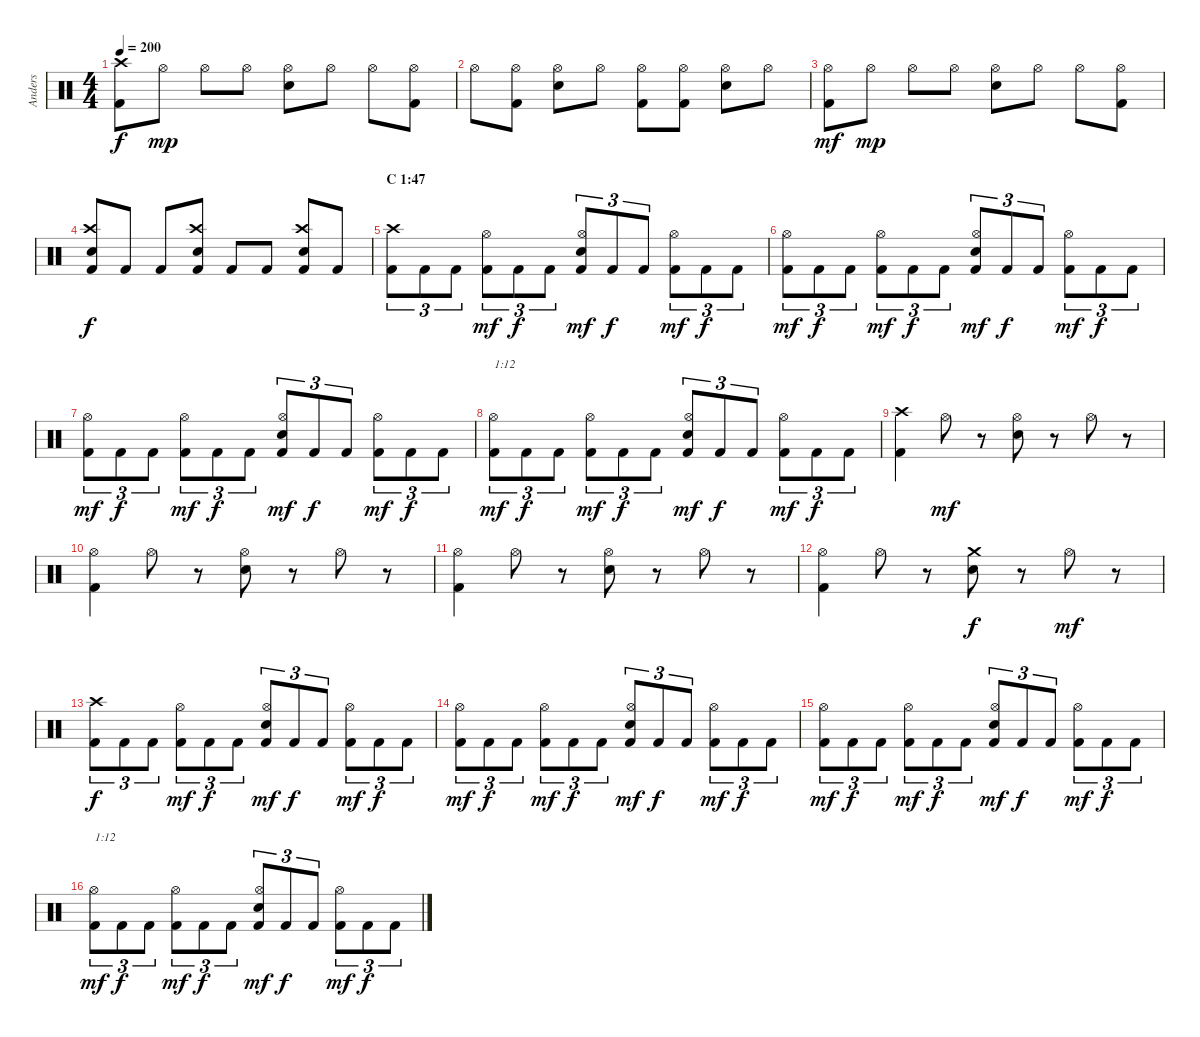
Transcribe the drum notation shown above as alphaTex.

\track ("Anders" "Anders") {instrument percussion}
\staff {score}
\articulation defaults
\ts (4 4)
\tempo 200
\clef neutral
\ks c
("Kick (hit) 2" "Crash high (hit)").8{dy f} "Hi-Hat (open)".8{dy mp} "Hi-Hat (open)".8 "Hi-Hat (open)".8 ("Electric Snare (hit)" "Hi-Hat (open)").8 "Hi-Hat (open)".8 "Hi-Hat (open)".8 ("Kick (hit) 2" "Hi-Hat (open)").8 |
"Hi-Hat (open)".8 ("Kick (hit) 2" "Hi-Hat (open)").8 ("Electric Snare (hit)" "Hi-Hat (open)").8 "Hi-Hat (open)".8 ("Kick (hit) 2" "Hi-Hat (open)").8 ("Kick (hit) 2" "Hi-Hat (open)").8 ("Electric Snare (hit)" "Hi-Hat (open)").8 "Hi-Hat (open)".8 |
("Kick (hit) 2" "Hi-Hat (open)").8{dy mf} "Hi-Hat (open)".8{dy mp} "Hi-Hat (open)".8 "Hi-Hat (open)".8 ("Electric Snare (hit)" "Hi-Hat (open)").8 "Hi-Hat (open)".8 "Hi-Hat (open)".8 ("Kick (hit) 2" "Hi-Hat (open)").8 |
("Kick (hit) 2" "Electric Snare (hit)" "Crash high (hit)").8{dy f} "Kick (hit) 2".8 "Kick (hit) 2".8 ("Kick (hit) 2" "Electric Snare (hit)" "Crash high (hit)").8 "Kick (hit) 2".8 "Kick (hit) 2".8 ("Kick (hit) 2" "Electric Snare (hit)" "Crash high (hit)").8 "Kick (hit) 2".8 |
\section ("" "C 1:47")
("Kick (hit) 2" "Crash high (hit)").8{tu (3 2)} "Kick (hit) 2".8{tu (3 2)} "Kick (hit) 2".8{tu (3 2)} ("Kick (hit) 2" "Hi-Hat (open)").8{tu (3 2) dy mf} "Kick (hit) 2".8{tu (3 2) dy f} "Kick (hit) 2".8{tu (3 2)} ("Kick (hit) 2" "Electric Snare (hit)" "Hi-Hat (open)").8{tu (3 2) dy mf} "Kick (hit) 2".8{tu (3 2) dy f} "Kick (hit) 2".8{tu (3 2)} ("Kick (hit) 2" "Hi-Hat (open)").8{tu (3 2) dy mf} "Kick (hit) 2".8{tu (3 2) dy f} "Kick (hit) 2".8{tu (3 2)} |
("Kick (hit) 2" "Hi-Hat (open)").8{tu (3 2) dy mf} "Kick (hit) 2".8{tu (3 2) dy f} "Kick (hit) 2".8{tu (3 2)} ("Kick (hit) 2" "Hi-Hat (open)").8{tu (3 2) dy mf} "Kick (hit) 2".8{tu (3 2) dy f} "Kick (hit) 2".8{tu (3 2)} ("Kick (hit) 2" "Electric Snare (hit)" "Hi-Hat (open)").8{tu (3 2) dy mf} "Kick (hit) 2".8{tu (3 2) dy f} "Kick (hit) 2".8{tu (3 2)} ("Kick (hit) 2" "Hi-Hat (open)").8{tu (3 2) dy mf} "Kick (hit) 2".8{tu (3 2) dy f} "Kick (hit) 2".8{tu (3 2)} |
("Kick (hit) 2" "Hi-Hat (open)").8{tu (3 2) dy mf} "Kick (hit) 2".8{tu (3 2) dy f} "Kick (hit) 2".8{tu (3 2)} ("Kick (hit) 2" "Hi-Hat (open)").8{tu (3 2) dy mf} "Kick (hit) 2".8{tu (3 2) dy f} "Kick (hit) 2".8{tu (3 2)} ("Kick (hit) 2" "Electric Snare (hit)" "Hi-Hat (open)").8{tu (3 2) dy mf} "Kick (hit) 2".8{tu (3 2) dy f} "Kick (hit) 2".8{tu (3 2)} ("Kick (hit) 2" "Hi-Hat (open)").8{tu (3 2) dy mf} "Kick (hit) 2".8{tu (3 2) dy f} "Kick (hit) 2".8{tu (3 2)} |
("Kick (hit) 2" "Hi-Hat (open)").8{tu (3 2) txt "1:12" dy mf} "Kick (hit) 2".8{tu (3 2) dy f} "Kick (hit) 2".8{tu (3 2)} ("Kick (hit) 2" "Hi-Hat (open)").8{tu (3 2) dy mf} "Kick (hit) 2".8{tu (3 2) dy f} "Kick (hit) 2".8{tu (3 2)} ("Kick (hit) 2" "Electric Snare (hit)" "Hi-Hat (open)").8{tu (3 2) dy mf} "Kick (hit) 2".8{tu (3 2) dy f} "Kick (hit) 2".8{tu (3 2)} ("Kick (hit) 2" "Hi-Hat (open)").8{tu (3 2) dy mf} "Kick (hit) 2".8{tu (3 2) dy f} "Kick (hit) 2".8{tu (3 2)} |
("Kick (hit) 2" "Crash high (hit)").4 "Hi-Hat (open)".8{dy mf} r.8 ("Electric Snare (hit)" "Hi-Hat (open)").8 r.8 "Hi-Hat (open)".8 r.8 |
("Kick (hit) 2" "Hi-Hat (open)").4 "Hi-Hat (open)".8 r.8 ("Electric Snare (hit)" "Hi-Hat (open)").8 r.8 "Hi-Hat (open)".8 r.8 |
("Kick (hit) 2" "Hi-Hat (open)").4 "Hi-Hat (open)".8 r.8 ("Electric Snare (hit)" "Hi-Hat (open)").8 r.8 "Hi-Hat (open)".8 r.8 |
("Kick (hit) 2" "Hi-Hat (open)").4 "Hi-Hat (open)".8 r.8 ("Electric Snare (hit)" "Crash medium (hit)").8{dy f} r.8 "Hi-Hat (open)".8{dy mf} r.8 |
("Kick (hit) 2" "Crash high (hit)").8{tu (3 2) dy f} "Kick (hit) 2".8{tu (3 2)} "Kick (hit) 2".8{tu (3 2)} ("Kick (hit) 2" "Hi-Hat (open)").8{tu (3 2) dy mf} "Kick (hit) 2".8{tu (3 2) dy f} "Kick (hit) 2".8{tu (3 2)} ("Kick (hit) 2" "Electric Snare (hit)" "Hi-Hat (open)").8{tu (3 2) dy mf} "Kick (hit) 2".8{tu (3 2) dy f} "Kick (hit) 2".8{tu (3 2)} ("Kick (hit) 2" "Hi-Hat (open)").8{tu (3 2) dy mf} "Kick (hit) 2".8{tu (3 2) dy f} "Kick (hit) 2".8{tu (3 2)} |
("Kick (hit) 2" "Hi-Hat (open)").8{tu (3 2) dy mf} "Kick (hit) 2".8{tu (3 2) dy f} "Kick (hit) 2".8{tu (3 2)} ("Kick (hit) 2" "Hi-Hat (open)").8{tu (3 2) dy mf} "Kick (hit) 2".8{tu (3 2) dy f} "Kick (hit) 2".8{tu (3 2)} ("Kick (hit) 2" "Electric Snare (hit)" "Hi-Hat (open)").8{tu (3 2) dy mf} "Kick (hit) 2".8{tu (3 2) dy f} "Kick (hit) 2".8{tu (3 2)} ("Kick (hit) 2" "Hi-Hat (open)").8{tu (3 2) dy mf} "Kick (hit) 2".8{tu (3 2) dy f} "Kick (hit) 2".8{tu (3 2)} |
("Kick (hit) 2" "Hi-Hat (open)").8{tu (3 2) dy mf} "Kick (hit) 2".8{tu (3 2) dy f} "Kick (hit) 2".8{tu (3 2)} ("Kick (hit) 2" "Hi-Hat (open)").8{tu (3 2) dy mf} "Kick (hit) 2".8{tu (3 2) dy f} "Kick (hit) 2".8{tu (3 2)} ("Kick (hit) 2" "Electric Snare (hit)" "Hi-Hat (open)").8{tu (3 2) dy mf} "Kick (hit) 2".8{tu (3 2) dy f} "Kick (hit) 2".8{tu (3 2)} ("Kick (hit) 2" "Hi-Hat (open)").8{tu (3 2) dy mf} "Kick (hit) 2".8{tu (3 2) dy f} "Kick (hit) 2".8{tu (3 2)} |
("Kick (hit) 2" "Hi-Hat (open)").8{tu (3 2) txt "1:12" dy mf} "Kick (hit) 2".8{tu (3 2) dy f} "Kick (hit) 2".8{tu (3 2)} ("Kick (hit) 2" "Hi-Hat (open)").8{tu (3 2) dy mf} "Kick (hit) 2".8{tu (3 2) dy f} "Kick (hit) 2".8{tu (3 2)} ("Kick (hit) 2" "Electric Snare (hit)" "Hi-Hat (open)").8{tu (3 2) dy mf} "Kick (hit) 2".8{tu (3 2) dy f} "Kick (hit) 2".8{tu (3 2)} ("Kick (hit) 2" "Hi-Hat (open)").8{tu (3 2) dy mf} "Kick (hit) 2".8{tu (3 2) dy f} "Kick (hit) 2".8{tu (3 2)}
